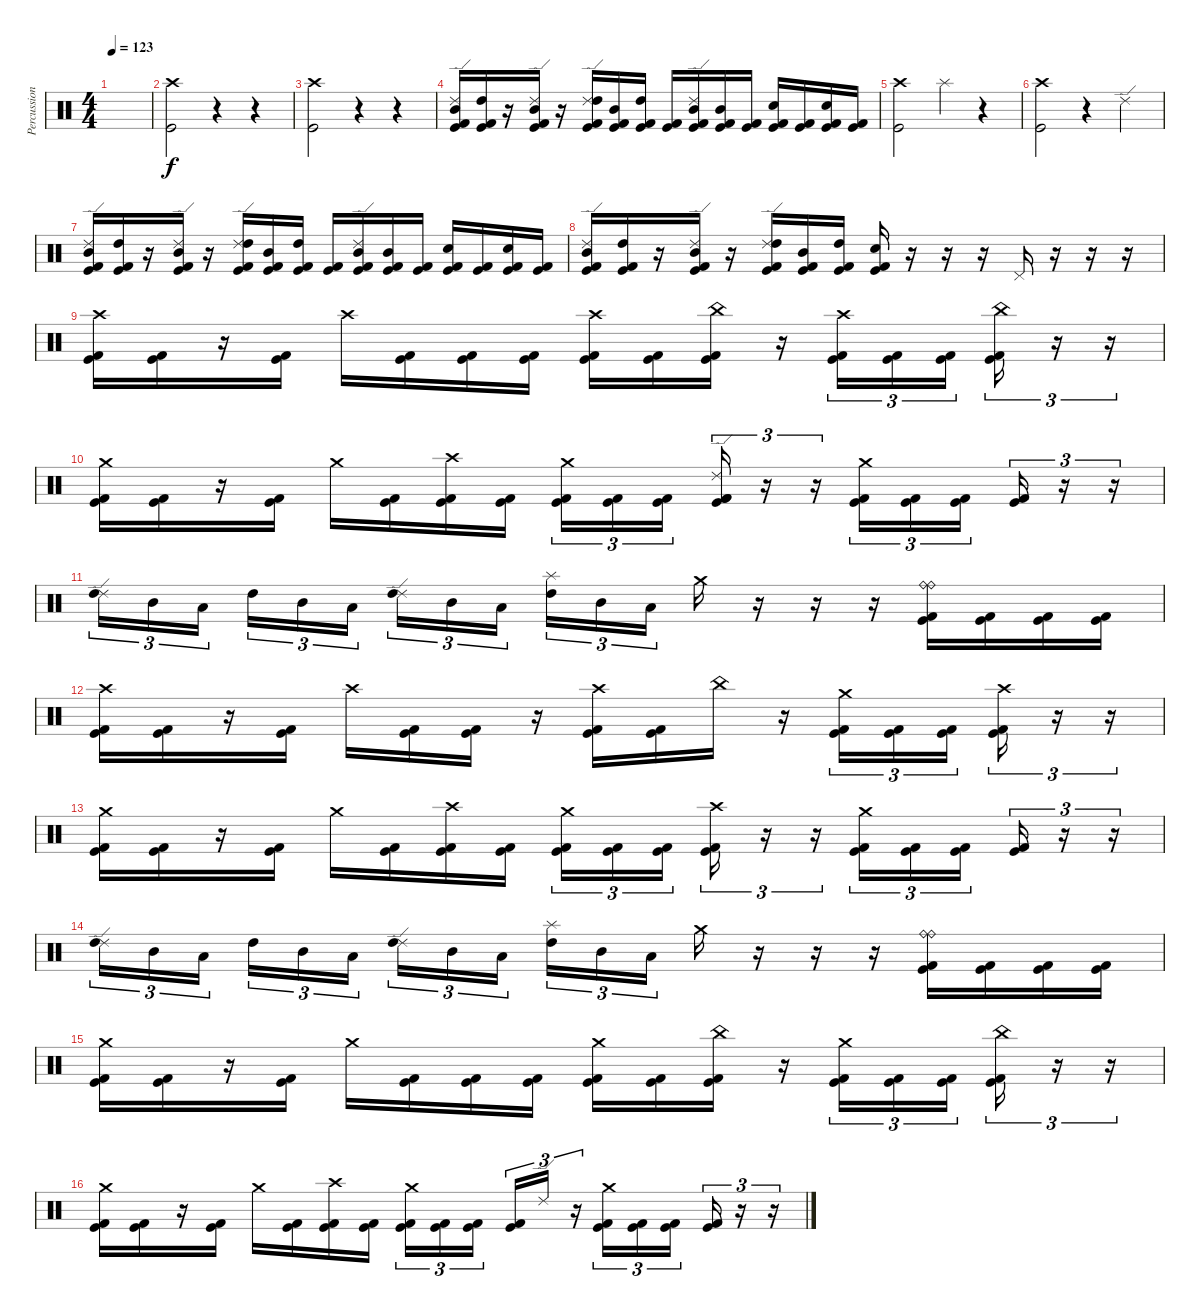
\track ("Percussion" "Percussion") {instrument percussion}
\staff {score}
\articulation defaults
\ts (4 4)
\tempo 123
\clef neutral
\ks c
|
("Crash high (hit)" "Kick (hit)").2 r.4 r.4 |
("Crash high (hit)" "Kick (hit)").2 r.4 r.4 |
("Kick (hit) 2" "Ride (edge) 2" "Mid Tom (hit)" "Kick (hit)").16 ("Kick (hit) 2" "High Tom (hit)" "Kick (hit)").16 r.16 ("Kick (hit) 2" "Ride (edge) 2" "Mid Tom (hit)" "Kick (hit)").16 r.16 ("Kick (hit) 2" "Ride (edge) 2" "High Tom (hit)" "Kick (hit)").16 ("Kick (hit) 2" "Mid Tom (hit)" "Kick (hit)").16 ("Kick (hit) 2" "High Tom (hit)" "Kick (hit)").16 ("Kick (hit) 2" "Kick (hit)").16 ("Kick (hit) 2" "Ride (edge) 2" "Mid Tom (hit)" "Kick (hit)").16 ("Kick (hit) 2" "Mid Tom (hit)" "Kick (hit)").16 ("Kick (hit) 2" "Kick (hit)").16 ("Kick (hit) 2" "Electric Snare (hit)" "Kick (hit)").16 ("Kick (hit) 2" "Kick (hit)").16 ("Kick (hit) 2" "Electric Snare (hit)" "Kick (hit)").16 ("Kick (hit) 2" "Kick (hit)").16 |
("Crash high (hit)" "Kick (hit)").2 "Splash (hit)".4 r.4 |
("Crash high (hit)" "Kick (hit)").2 r.4 "Ride (edge) 2".4 |
("Kick (hit) 2" "Ride (edge) 2" "Mid Tom (hit)" "Kick (hit)").16 ("Kick (hit) 2" "High Tom (hit)" "Kick (hit)").16 r.16 ("Kick (hit) 2" "Ride (edge) 2" "Mid Tom (hit)" "Kick (hit)").16 r.16 ("Kick (hit) 2" "Ride (edge) 2" "High Tom (hit)" "Kick (hit)").16 ("Kick (hit) 2" "Mid Tom (hit)" "Kick (hit)").16 ("Kick (hit) 2" "High Tom (hit)" "Kick (hit)").16 ("Kick (hit) 2" "Kick (hit)").16 ("Kick (hit) 2" "Ride (edge) 2" "Mid Tom (hit)" "Kick (hit)").16 ("Kick (hit) 2" "Mid Tom (hit)" "Kick (hit)").16 ("Kick (hit) 2" "Kick (hit)").16 ("Kick (hit) 2" "Electric Snare (hit)" "Kick (hit)").16 ("Kick (hit) 2" "Kick (hit)").16 ("Kick (hit) 2" "Electric Snare (hit)" "Kick (hit)").16 ("Kick (hit) 2" "Kick (hit)").16 |
("Kick (hit) 2" "Ride (edge) 2" "Mid Tom (hit)" "Kick (hit)").16 ("Kick (hit) 2" "High Tom (hit)" "Kick (hit)").16 r.16 ("Kick (hit) 2" "Ride (edge) 2" "Mid Tom (hit)" "Kick (hit)").16 r.16 ("Kick (hit) 2" "Ride (edge) 2" "High Tom (hit)" "Kick (hit)").16 ("Kick (hit) 2" "Mid Tom (hit)" "Kick (hit)").16 ("Kick (hit) 2" "High Tom (hit)" "Kick (hit)").16 ("Kick (hit) 2" "Electric Snare (hit)" "Kick (hit)").16 r.16 r.16 r.16 "Pedal Hi-Hat (hit)".16 r.16 r.16 r.16 |
("Crash high (hit)" "Kick (hit) 2" "Kick (hit)").16 ("Kick (hit) 2" "Kick (hit)").16 r.16 ("Kick (hit) 2" "Kick (hit)").16 "Crash high (hit)".16 ("Kick (hit) 2" "Kick (hit)").16 ("Kick (hit) 2" "Kick (hit)").16 ("Kick (hit) 2" "Kick (hit)").16 ("Crash high (hit)" "Kick (hit) 2" "Kick (hit)").16 ("Kick (hit) 2" "Kick (hit)").16 ("China (hit)" "Kick (hit) 2" "Kick (hit)").16 r.16 ("Crash high (hit)" "Kick (hit) 2" "Kick (hit)").16{tu (3 2)} ("Kick (hit) 2" "Kick (hit)").16{tu (3 2)} ("Kick (hit) 2" "Kick (hit)").16{tu (3 2) beam splitsecondary} ("China (hit)" "Kick (hit) 2" "Kick (hit)").16{tu (3 2)} r.16{tu (3 2)} r.16{tu (3 2)} |
("Crash medium (hit)" "Kick (hit) 2" "Kick (hit)").16 ("Kick (hit) 2" "Kick (hit)").16 r.16 ("Kick (hit) 2" "Kick (hit)").16 "Crash medium (hit)".16 ("Kick (hit) 2" "Kick (hit)").16 ("Crash high (hit)" "Kick (hit) 2" "Kick (hit)").16 ("Kick (hit) 2" "Kick (hit)").16 ("Crash medium (hit)" "Kick (hit) 2" "Kick (hit)").16{tu (3 2)} ("Kick (hit) 2" "Kick (hit)").16{tu (3 2)} ("Kick (hit) 2" "Kick (hit)").16{tu (3 2) beam splitsecondary} ("Ride (edge) 2" "Kick (hit) 2" "Kick (hit) 2" "Kick (hit)").16{tu (3 2)} r.16{tu (3 2)} r.16{tu (3 2)} ("Crash medium (hit)" "Kick (hit) 2" "Kick (hit)").16{tu (3 2)} ("Kick (hit) 2" "Kick (hit)").16{tu (3 2)} ("Kick (hit) 2" "Kick (hit)").16{tu (3 2) beam splitsecondary} ("Kick (hit) 2" "Kick (hit)").16{tu (3 2)} r.16{tu (3 2)} r.16{tu (3 2)} |
("Ride (edge) 2" "High Tom (hit)").16{tu (3 2)} "Mid Tom (hit)".16{tu (3 2)} "Low Tom (hit)".16{tu (3 2) beam splitsecondary} "High Tom (hit)".16{tu (3 2)} "Mid Tom (hit)".16{tu (3 2)} "Low Tom (hit)".16{tu (3 2)} ("Ride (edge) 2" "High Tom (hit)").16{tu (3 2)} "Mid Tom (hit)".16{tu (3 2)} "Low Tom (hit)".16{tu (3 2) beam splitsecondary} ("Splash (hit)" "High Tom (hit)").16{tu (3 2)} "Mid Tom (hit)".16{tu (3 2)} "Low Tom (hit)".16{tu (3 2)} "Crash medium (hit)".16 r.16 r.16 r.16 ("Ride (bell)" "Ride (bell)" "Kick (hit) 2" "Kick (hit)").16 ("Kick (hit) 2" "Kick (hit)").16 ("Kick (hit) 2" "Kick (hit)").16 ("Kick (hit) 2" "Kick (hit)").16 |
("Crash high (hit)" "Kick (hit) 2" "Kick (hit)").16 ("Kick (hit) 2" "Kick (hit)").16 r.16 ("Kick (hit) 2" "Kick (hit)").16 "Crash high (hit)".16 ("Kick (hit) 2" "Kick (hit)").16 ("Kick (hit) 2" "Kick (hit)").16 r.16 ("Crash high (hit)" "Kick (hit) 2" "Kick (hit)").16 ("Kick (hit) 2" "Kick (hit)").16 "China (hit)".16 r.16 ("Crash medium (hit)" "Kick (hit) 2" "Kick (hit)").16{tu (3 2)} ("Kick (hit) 2" "Kick (hit)").16{tu (3 2)} ("Kick (hit) 2" "Kick (hit)").16{tu (3 2) beam splitsecondary} ("Crash high (hit)" "Kick (hit) 2" "Kick (hit)").16{tu (3 2)} r.16{tu (3 2)} r.16{tu (3 2)} |
("Crash medium (hit)" "Kick (hit) 2" "Kick (hit)").16 ("Kick (hit) 2" "Kick (hit)").16 r.16 ("Kick (hit) 2" "Kick (hit)").16 "Crash medium (hit)".16 ("Kick (hit) 2" "Kick (hit)").16 ("Crash high (hit)" "Kick (hit) 2" "Kick (hit)").16 ("Kick (hit) 2" "Kick (hit)").16 ("Crash medium (hit)" "Kick (hit) 2" "Kick (hit)").16{tu (3 2)} ("Kick (hit) 2" "Kick (hit)").16{tu (3 2)} ("Kick (hit) 2" "Kick (hit)").16{tu (3 2) beam splitsecondary} ("Crash high (hit)" "Kick (hit) 2" "Kick (hit)").16{tu (3 2)} r.16{tu (3 2)} r.16{tu (3 2)} ("Crash medium (hit)" "Kick (hit) 2" "Kick (hit)").16{tu (3 2)} ("Kick (hit) 2" "Kick (hit)").16{tu (3 2)} ("Kick (hit) 2" "Kick (hit)").16{tu (3 2) beam splitsecondary} ("Kick (hit) 2" "Kick (hit)").16{tu (3 2)} r.16{tu (3 2)} r.16{tu (3 2)} |
("Ride (edge) 2" "High Tom (hit)").16{tu (3 2)} "Mid Tom (hit)".16{tu (3 2)} "Low Tom (hit)".16{tu (3 2) beam splitsecondary} "High Tom (hit)".16{tu (3 2)} "Mid Tom (hit)".16{tu (3 2)} "Low Tom (hit)".16{tu (3 2)} ("Ride (edge) 2" "High Tom (hit)").16{tu (3 2)} "Mid Tom (hit)".16{tu (3 2)} "Low Tom (hit)".16{tu (3 2) beam splitsecondary} ("Splash (hit)" "High Tom (hit)").16{tu (3 2)} "Mid Tom (hit)".16{tu (3 2)} "Low Tom (hit)".16{tu (3 2)} "Crash medium (hit)".16 r.16 r.16 r.16 ("Ride (bell)" "Ride (bell)" "Kick (hit) 2" "Kick (hit)").16 ("Kick (hit) 2" "Kick (hit)").16 ("Kick (hit) 2" "Kick (hit)").16 ("Kick (hit) 2" "Kick (hit)").16 |
("Crash medium (hit)" "Kick (hit) 2" "Kick (hit)").16 ("Kick (hit) 2" "Kick (hit)").16 r.16 ("Kick (hit) 2" "Kick (hit)").16 "Crash medium (hit)".16 ("Kick (hit) 2" "Kick (hit)").16 ("Kick (hit) 2" "Kick (hit)").16 ("Kick (hit) 2" "Kick (hit)").16 ("Crash medium (hit)" "Kick (hit) 2" "Kick (hit)").16 ("Kick (hit) 2" "Kick (hit)").16 ("China (hit)" "Kick (hit) 2" "Kick (hit)").16 r.16 ("Crash medium (hit)" "Kick (hit) 2" "Kick (hit)").16{tu (3 2)} ("Kick (hit) 2" "Kick (hit)").16{tu (3 2)} ("Kick (hit) 2" "Kick (hit)").16{tu (3 2) beam splitsecondary} ("China (hit)" "Kick (hit) 2" "Kick (hit)").16{tu (3 2)} r.16{tu (3 2)} r.16{tu (3 2)} |
("Crash medium (hit)" "Kick (hit) 2" "Kick (hit)").16 ("Kick (hit) 2" "Kick (hit)").16 r.16 ("Kick (hit) 2" "Kick (hit)").16 "Crash medium (hit)".16 ("Kick (hit) 2" "Kick (hit)").16 ("Crash high (hit)" "Kick (hit) 2" "Kick (hit)").16 ("Kick (hit) 2" "Kick (hit)").16 ("Crash medium (hit)" "Kick (hit) 2" "Kick (hit)").16{tu (3 2)} ("Kick (hit) 2" "Kick (hit)").16{tu (3 2)} ("Kick (hit) 2" "Kick (hit)").16{tu (3 2) beam splitsecondary} ("Kick (hit) 2" "Kick (hit)").16{tu (3 2)} "Ride (edge) 2".16{tu (3 2)} r.16{tu (3 2)} ("Crash medium (hit)" "Kick (hit) 2" "Kick (hit)").16{tu (3 2)} ("Kick (hit) 2" "Kick (hit)").16{tu (3 2)} ("Kick (hit) 2" "Kick (hit)").16{tu (3 2) beam splitsecondary} ("Kick (hit) 2" "Kick (hit)").16{tu (3 2)} r.16{tu (3 2)} r.16{tu (3 2)}
